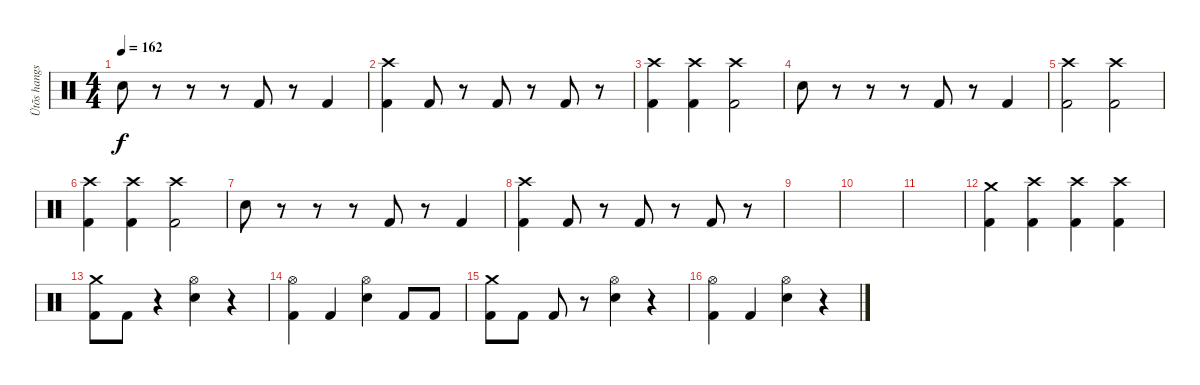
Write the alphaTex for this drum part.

\track ("Ütõs hangszer" "Ütõs hangs") {instrument percussion}
\staff {score}
\articulation defaults
\ts (4 4)
\tempo 162
\clef neutral
\ks c "Snare (hit) 2".8{dy f}
r.8 r.8 r.8 "Kick (hit) 2".8 r.8 "Kick (hit) 2".4 |
("Kick (hit) 2" "Crash high (hit)").4 "Kick (hit) 2".8 r.8 "Kick (hit) 2".8 r.8 "Kick (hit) 2".8 r.8 |
("Kick (hit) 2" "Crash high (hit)").4 ("Kick (hit) 2" "Crash high (hit)").4 ("Kick (hit) 2" "Crash high (hit)").2 |
"Snare (hit) 2".8 r.8 r.8 r.8 "Kick (hit) 2".8 r.8 "Kick (hit) 2".4 |
("Kick (hit) 2" "Crash high (hit)").2 ("Kick (hit) 2" "Crash high (hit)").2 |
("Kick (hit) 2" "Crash high (hit)").4 ("Kick (hit) 2" "Crash high (hit)").4 ("Kick (hit) 2" "Crash high (hit)").2 |
"Snare (hit) 2".8 r.8 r.8 r.8 "Kick (hit) 2".8 r.8 "Kick (hit) 2".4 |
("Kick (hit) 2" "Crash high (hit)").4 "Kick (hit) 2".8 r.8 "Kick (hit) 2".8 r.8 "Kick (hit) 2".8 r.8 |
|
|
|
("Crash medium (hit)" "Kick (hit) 2").4 ("Crash high (hit)" "Kick (hit) 2").4 ("Crash high (hit)" "Kick (hit) 2").4 ("Crash high (hit)" "Kick (hit) 2").4 |
("Crash medium (hit)" "Kick (hit) 2").8 "Kick (hit) 2".8 r.4 ("Hi-Hat (open)" "Electric Snare (hit)").4 r.4 |
("Hi-Hat (open)" "Kick (hit) 2").4 "Kick (hit) 2".4 ("Hi-Hat (open)" "Electric Snare (hit)").4 "Kick (hit) 2".8 "Kick (hit) 2".8 |
("Crash medium (hit)" "Kick (hit) 2").8 "Kick (hit) 2".8 "Kick (hit) 2".8 r.8 ("Hi-Hat (open)" "Electric Snare (hit)").4 r.4 |
("Hi-Hat (open)" "Kick (hit) 2").4 "Kick (hit) 2".4 ("Hi-Hat (open)" "Electric Snare (hit)").4 r.4
